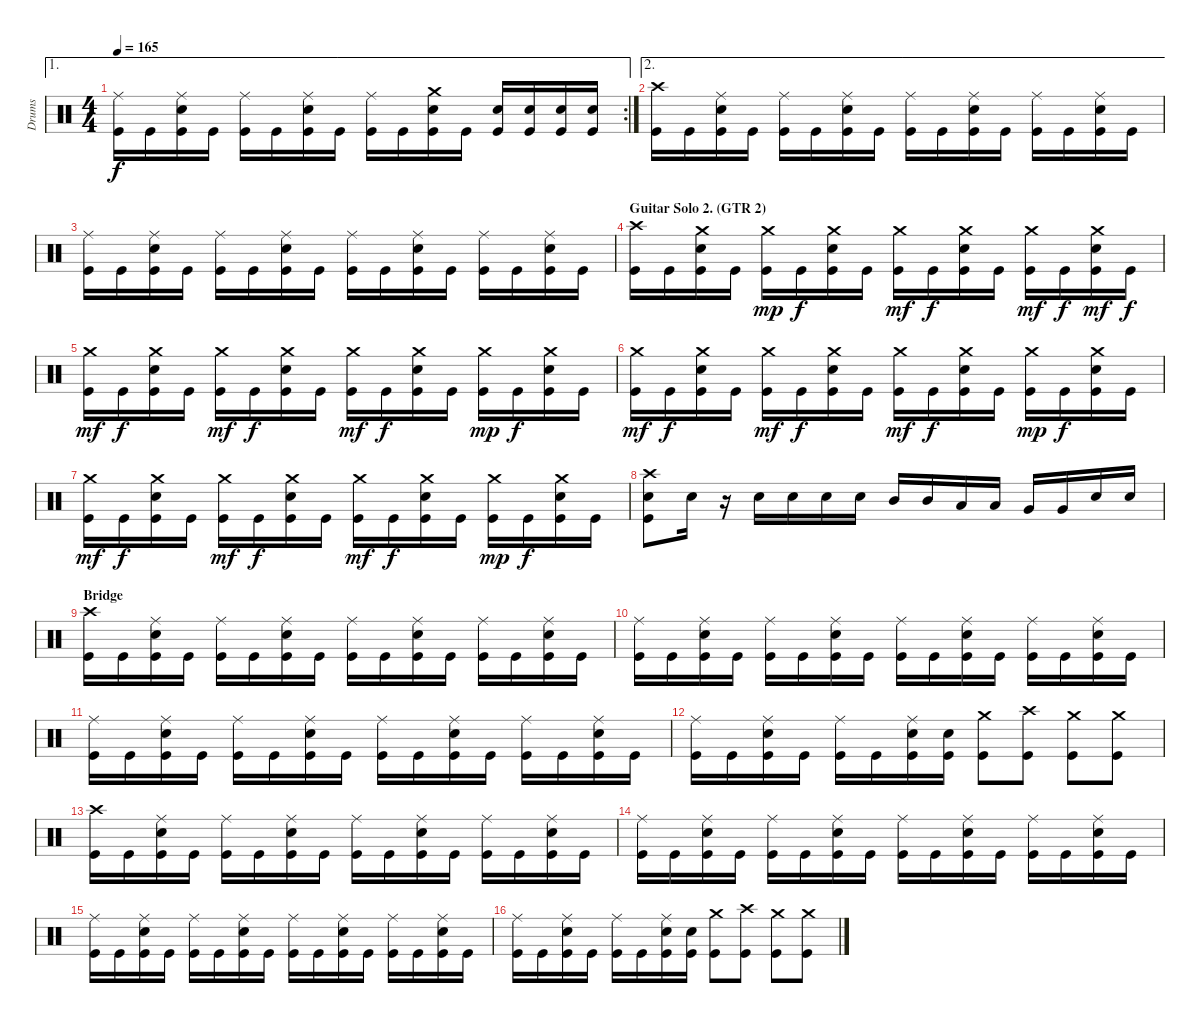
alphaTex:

\track ("Drums" "Drums") {instrument percussion}
\staff {score}
\articulation defaults
\ae 1
\rc 2
\ts (4 4)
\tempo 165
\clef neutral
\ks c
("Ride (middle)" "Kick (hit)").16{dy f} "Kick (hit)".16 ("Ride (middle)" "Snare (hit) 2" "Kick (hit)").16 "Kick (hit)".16 ("Ride (middle)" "Kick (hit)").16 "Kick (hit)".16 ("Ride (middle)" "Snare (hit) 2" "Kick (hit)").16 "Kick (hit)".16 ("Ride (middle)" "Kick (hit)").16 "Kick (hit)".16 ("Crash medium (hit)" "Snare (hit) 2" "Kick (hit)").16 "Kick (hit)".16 ("Snare (hit) 2" "Kick (hit)").16 ("Snare (hit) 2" "Kick (hit)").16 ("Snare (hit) 2" "Kick (hit)").16 ("Snare (hit) 2" "Kick (hit)").16 |
\ae 2
("Crash high (hit)" "Kick (hit)").16 "Kick (hit)".16 ("Ride (middle)" "Snare (hit) 2" "Kick (hit)").16 "Kick (hit)".16 ("Ride (middle)" "Kick (hit)").16 "Kick (hit)".16 ("Ride (middle)" "Snare (hit) 2" "Kick (hit)").16 "Kick (hit)".16 ("Ride (middle)" "Kick (hit)").16 "Kick (hit)".16 ("Ride (middle)" "Snare (hit) 2" "Kick (hit)").16 "Kick (hit)".16 ("Ride (middle)" "Kick (hit)").16 "Kick (hit)".16 ("Ride (middle)" "Snare (hit) 2" "Kick (hit)").16 "Kick (hit)".16 |
("Ride (middle)" "Kick (hit)").16 "Kick (hit)".16 ("Ride (middle)" "Snare (hit) 2" "Kick (hit)").16 "Kick (hit)".16 ("Ride (middle)" "Kick (hit)").16 "Kick (hit)".16 ("Ride (middle)" "Snare (hit) 2" "Kick (hit)").16 "Kick (hit)".16 ("Ride (middle)" "Kick (hit)").16 "Kick (hit)".16 ("Ride (middle)" "Snare (hit) 2" "Kick (hit)").16 "Kick (hit)".16 ("Ride (middle)" "Kick (hit)").16 "Kick (hit)".16 ("Ride (middle)" "Snare (hit) 2" "Kick (hit)").16 "Kick (hit)".16 |
\section ("" "Guitar Solo 2. (GTR 2)")
("Crash high (hit)" "Kick (hit)").16 "Kick (hit)".16 ("Crash medium (hit)" "Snare (hit) 2" "Kick (hit)").16 "Kick (hit)".16 ("Crash medium (hit)" "Kick (hit)").16{dy mp} "Kick (hit)".16{dy f} ("Crash medium (hit)" "Snare (hit) 2" "Kick (hit)").16 "Kick (hit)".16 ("Crash medium (hit)" "Kick (hit)").16{dy mf} "Kick (hit)".16{dy f} ("Crash medium (hit)" "Snare (hit) 2" "Kick (hit)").16 "Kick (hit)".16 ("Crash medium (hit)" "Kick (hit)").16{dy mf} "Kick (hit)".16{dy f} ("Crash medium (hit)" "Snare (hit) 2" "Kick (hit)").16{dy mf} "Kick (hit)".16{dy f} |
("Crash medium (hit)" "Kick (hit)").16{dy mf} "Kick (hit)".16{dy f} ("Crash medium (hit)" "Snare (hit) 2" "Kick (hit)").16 "Kick (hit)".16 ("Crash medium (hit)" "Kick (hit)").16{dy mf} "Kick (hit)".16{dy f} ("Crash medium (hit)" "Snare (hit) 2" "Kick (hit)").16 "Kick (hit)".16 ("Crash medium (hit)" "Kick (hit)").16{dy mf} "Kick (hit)".16{dy f} ("Crash medium (hit)" "Snare (hit) 2" "Kick (hit)").16 "Kick (hit)".16 ("Crash medium (hit)" "Kick (hit)").16{dy mp} "Kick (hit)".16{dy f} ("Crash medium (hit)" "Snare (hit) 2" "Kick (hit)").16 "Kick (hit)".16 |
("Crash medium (hit)" "Kick (hit)").16{dy mf} "Kick (hit)".16{dy f} ("Crash medium (hit)" "Snare (hit) 2" "Kick (hit)").16 "Kick (hit)".16 ("Crash medium (hit)" "Kick (hit)").16{dy mf} "Kick (hit)".16{dy f} ("Crash medium (hit)" "Snare (hit) 2" "Kick (hit)").16 "Kick (hit)".16 ("Crash medium (hit)" "Kick (hit)").16{dy mf} "Kick (hit)".16{dy f} ("Crash medium (hit)" "Snare (hit) 2" "Kick (hit)").16 "Kick (hit)".16 ("Crash medium (hit)" "Kick (hit)").16{dy mp} "Kick (hit)".16{dy f} ("Crash medium (hit)" "Snare (hit) 2" "Kick (hit)").16 "Kick (hit)".16 |
("Crash medium (hit)" "Kick (hit)").16{dy mf} "Kick (hit)".16{dy f} ("Crash medium (hit)" "Snare (hit) 2" "Kick (hit)").16 "Kick (hit)".16 ("Crash medium (hit)" "Kick (hit)").16{dy mf} "Kick (hit)".16{dy f} ("Crash medium (hit)" "Snare (hit) 2" "Kick (hit)").16 "Kick (hit)".16 ("Crash medium (hit)" "Kick (hit)").16{dy mf} "Kick (hit)".16{dy f} ("Crash medium (hit)" "Snare (hit) 2" "Kick (hit)").16 "Kick (hit)".16 ("Crash medium (hit)" "Kick (hit)").16{dy mp} "Kick (hit)".16{dy f} ("Crash medium (hit)" "Snare (hit) 2" "Kick (hit)").16 "Kick (hit)".16 |
("Crash high (hit)" "Snare (hit) 2" "Kick (hit)").8 "Snare (hit) 2".16 r.16 "Snare (hit) 2".16 "Snare (hit) 2".16 "Snare (hit) 2".16 "Snare (hit) 2".16 "Mid Tom (hit)".16 "Mid Tom (hit)".16 "Low Tom (hit)".16 "Low Tom (hit)".16 "Very Low Tom (hit)".16 "Very Low Tom (hit)".16 "Snare (hit) 2".16 "Snare (hit) 2".16 |
\section ("" "Bridge")
("Crash high (hit)" "Kick (hit)").16 "Kick (hit)".16 ("Ride (middle)" "Snare (hit) 2" "Kick (hit)").16 "Kick (hit)".16 ("Ride (middle)" "Kick (hit)").16 "Kick (hit)".16 ("Ride (middle)" "Snare (hit) 2" "Kick (hit)").16 "Kick (hit)".16 ("Ride (middle)" "Kick (hit)").16 "Kick (hit)".16 ("Ride (middle)" "Snare (hit) 2" "Kick (hit)").16 "Kick (hit)".16 ("Ride (middle)" "Kick (hit)").16 "Kick (hit)".16 ("Ride (middle)" "Snare (hit) 2" "Kick (hit)").16 "Kick (hit)".16 |
("Ride (middle)" "Kick (hit)").16 "Kick (hit)".16 ("Ride (middle)" "Snare (hit) 2" "Kick (hit)").16 "Kick (hit)".16 ("Ride (middle)" "Kick (hit)").16 "Kick (hit)".16 ("Ride (middle)" "Snare (hit) 2" "Kick (hit)").16 "Kick (hit)".16 ("Ride (middle)" "Kick (hit)").16 "Kick (hit)".16 ("Ride (middle)" "Snare (hit) 2" "Kick (hit)").16 "Kick (hit)".16 ("Ride (middle)" "Kick (hit)").16 "Kick (hit)".16 ("Ride (middle)" "Snare (hit) 2" "Kick (hit)").16 "Kick (hit)".16 |
("Ride (middle)" "Kick (hit)").16 "Kick (hit)".16 ("Ride (middle)" "Snare (hit) 2" "Kick (hit)").16 "Kick (hit)".16 ("Ride (middle)" "Kick (hit)").16 "Kick (hit)".16 ("Ride (middle)" "Snare (hit) 2" "Kick (hit)").16 "Kick (hit)".16 ("Ride (middle)" "Kick (hit)").16 "Kick (hit)".16 ("Ride (middle)" "Snare (hit) 2" "Kick (hit)").16 "Kick (hit)".16 ("Ride (middle)" "Kick (hit)").16 "Kick (hit)".16 ("Ride (middle)" "Snare (hit) 2" "Kick (hit)").16 "Kick (hit)".16 |
("Ride (middle)" "Kick (hit)").16 "Kick (hit)".16 ("Ride (middle)" "Snare (hit) 2" "Kick (hit)").16 "Kick (hit)".16 ("Ride (middle)" "Kick (hit)").16 "Kick (hit)".16 ("Ride (middle)" "Snare (hit) 2" "Kick (hit)").16 ("Snare (hit) 2" "Kick (hit)").16 ("Crash medium (hit)" "Kick (hit)").8 ("Crash high (hit)" "Kick (hit)").8 ("Crash medium (hit)" "Kick (hit)").8 ("Crash medium (hit)" "Kick (hit)").8 |
("Crash high (hit)" "Kick (hit)").16 "Kick (hit)".16 ("Ride (middle)" "Snare (hit) 2" "Kick (hit)").16 "Kick (hit)".16 ("Ride (middle)" "Kick (hit)").16 "Kick (hit)".16 ("Ride (middle)" "Snare (hit) 2" "Kick (hit)").16 "Kick (hit)".16 ("Ride (middle)" "Kick (hit)").16 "Kick (hit)".16 ("Ride (middle)" "Snare (hit) 2" "Kick (hit)").16 "Kick (hit)".16 ("Ride (middle)" "Kick (hit)").16 "Kick (hit)".16 ("Ride (middle)" "Snare (hit) 2" "Kick (hit)").16 "Kick (hit)".16 |
("Ride (middle)" "Kick (hit)").16 "Kick (hit)".16 ("Ride (middle)" "Snare (hit) 2" "Kick (hit)").16 "Kick (hit)".16 ("Ride (middle)" "Kick (hit)").16 "Kick (hit)".16 ("Ride (middle)" "Snare (hit) 2" "Kick (hit)").16 "Kick (hit)".16 ("Ride (middle)" "Kick (hit)").16 "Kick (hit)".16 ("Ride (middle)" "Snare (hit) 2" "Kick (hit)").16 "Kick (hit)".16 ("Ride (middle)" "Kick (hit)").16 "Kick (hit)".16 ("Ride (middle)" "Snare (hit) 2" "Kick (hit)").16 "Kick (hit)".16 |
("Ride (middle)" "Kick (hit)").16 "Kick (hit)".16 ("Ride (middle)" "Snare (hit) 2" "Kick (hit)").16 "Kick (hit)".16 ("Ride (middle)" "Kick (hit)").16 "Kick (hit)".16 ("Ride (middle)" "Snare (hit) 2" "Kick (hit)").16 "Kick (hit)".16 ("Ride (middle)" "Kick (hit)").16 "Kick (hit)".16 ("Ride (middle)" "Snare (hit) 2" "Kick (hit)").16 "Kick (hit)".16 ("Ride (middle)" "Kick (hit)").16 "Kick (hit)".16 ("Ride (middle)" "Snare (hit) 2" "Kick (hit)").16 "Kick (hit)".16 |
("Ride (middle)" "Kick (hit)").16 "Kick (hit)".16 ("Ride (middle)" "Snare (hit) 2" "Kick (hit)").16 "Kick (hit)".16 ("Ride (middle)" "Kick (hit)").16 "Kick (hit)".16 ("Ride (middle)" "Snare (hit) 2" "Kick (hit)").16 ("Snare (hit) 2" "Kick (hit)").16 ("Crash medium (hit)" "Kick (hit)").8 ("Crash high (hit)" "Kick (hit)").8 ("Crash medium (hit)" "Kick (hit)").8 ("Crash medium (hit)" "Kick (hit)").8
